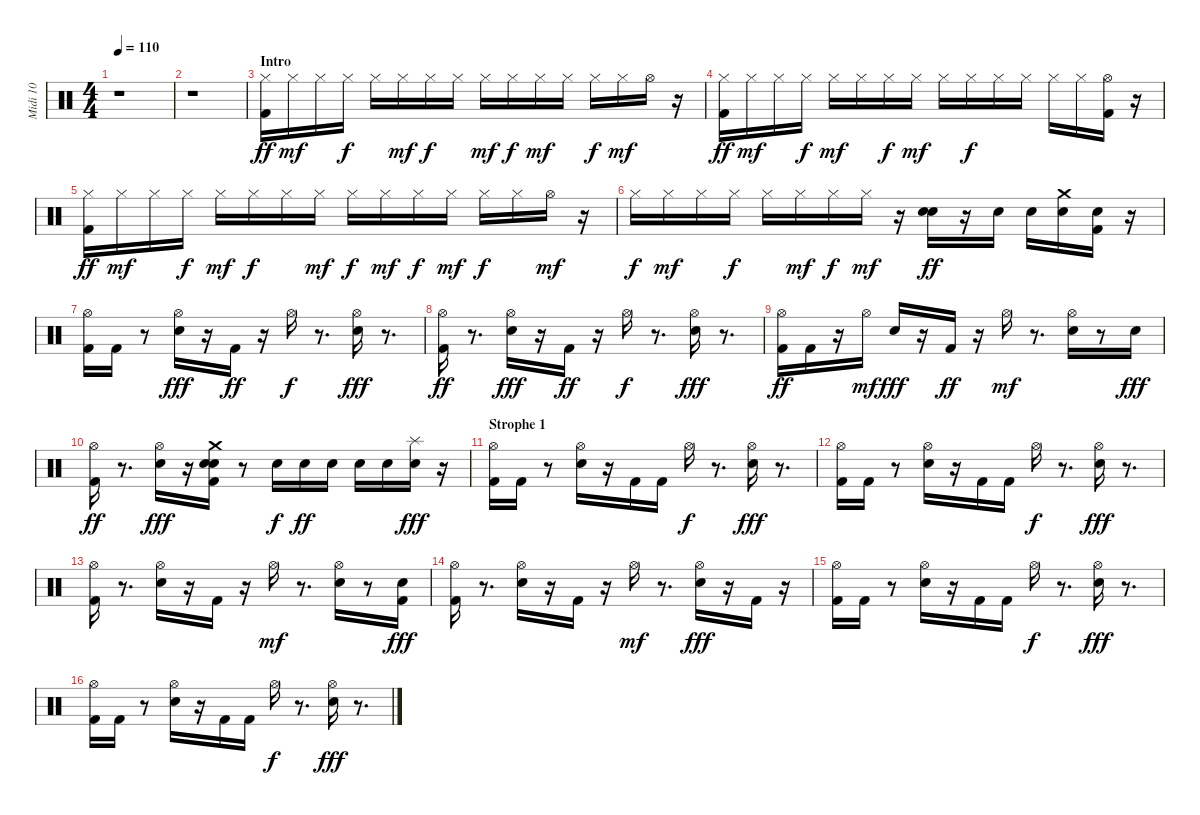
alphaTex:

\track ("Midi 10" "Midi 10") {instrument percussion}
\staff {score}
\articulation defaults
\ts (4 4)
\tempo 110
\clef neutral
\ks c
r.1{dy ff} |
r.1 |
\section ("" "Intro")
("Kick (hit) 2" "Hi-Hat (closed)").16 "Hi-Hat (closed)".16{dy mf} "Hi-Hat (closed)".16 "Hi-Hat (closed)".16{dy f} "Hi-Hat (closed)".16 "Hi-Hat (closed)".16{dy mf} "Hi-Hat (closed)".16{dy f} "Hi-Hat (closed)".16 "Hi-Hat (closed)".16{dy mf} "Hi-Hat (closed)".16{dy f} "Hi-Hat (closed)".16{dy mf} "Hi-Hat (closed)".16 "Hi-Hat (closed)".16{dy f} "Hi-Hat (closed)".16{dy mf} "Hi-Hat (open)".16 r.16 |
("Kick (hit) 2" "Hi-Hat (closed)").16{dy ff} "Hi-Hat (closed)".16{dy mf} "Hi-Hat (closed)".16 "Hi-Hat (closed)".16{dy f} "Hi-Hat (closed)".16{dy mf} "Hi-Hat (closed)".16 "Hi-Hat (closed)".16{dy f} "Hi-Hat (closed)".16{dy mf} "Hi-Hat (closed)".16 "Hi-Hat (closed)".16{dy f} "Hi-Hat (closed)".16 "Hi-Hat (closed)".16 "Hi-Hat (closed)".16 "Hi-Hat (closed)".16 ("Hi-Hat (open)" "Kick (hit) 2").16 r.16 |
("Kick (hit) 2" "Hi-Hat (closed)").16{dy ff} "Hi-Hat (closed)".16{dy mf} "Hi-Hat (closed)".16 "Hi-Hat (closed)".16{dy f} "Hi-Hat (closed)".16{dy mf} "Hi-Hat (closed)".16{dy f} "Hi-Hat (closed)".16 "Hi-Hat (closed)".16{dy mf} "Hi-Hat (closed)".16{dy f} "Hi-Hat (closed)".16{dy mf} "Hi-Hat (closed)".16{dy f} "Hi-Hat (closed)".16{dy mf} "Hi-Hat (closed)".16{dy f} "Hi-Hat (closed)".16 "Hi-Hat (open)".16{dy mf} r.16 |
"Hi-Hat (closed)".16{dy f} "Hi-Hat (closed)".16{dy mf} "Hi-Hat (closed)".16 "Hi-Hat (closed)".16{dy f} "Hi-Hat (closed)".16 "Hi-Hat (closed)".16{dy mf} "Hi-Hat (closed)".16{dy f} "Hi-Hat (closed)".16{dy mf} r.16 ("Snare (hit) 2" "Snare (hit) 2").16{dy ff} r.16 "Snare (hit) 2".16 "Snare (hit) 2".16 ("Snare (hit) 2" "Crash medium (hit)").16 ("Snare (hit) 2" "Kick (hit) 2").16 r.16 |
("Kick (hit) 2" "Hi-Hat (open)").16 "Kick (hit) 2".16 r.8 ("Snare (hit) 2" "Hi-Hat (open)").16{dy fff} r.16 "Kick (hit) 2".16{dy ff} r.16 "Hi-Hat (open)".16{dy f} r.8{d} ("Snare (hit) 2" "Hi-Hat (open)").16{dy fff} r.8{d} |
("Kick (hit) 2" "Hi-Hat (open)").16{dy ff} r.8{d} ("Snare (hit) 2" "Hi-Hat (open)").16{dy fff} r.16 "Kick (hit) 2".16{dy ff} r.16 "Hi-Hat (open)".16{dy f} r.8{d} ("Snare (hit) 2" "Hi-Hat (open)").16{dy fff} r.8{d} |
("Kick (hit) 2" "Hi-Hat (open)").16{dy ff} "Kick (hit) 2".16 r.16 "Hi-Hat (open)".16{dy mf} "Snare (hit) 2".16{dy fff} r.16 "Kick (hit) 2".16{dy ff} r.16 "Hi-Hat (open)".16{dy mf} r.8{d} ("Snare (hit) 2" "Hi-Hat (open)").16 r.8 "Snare (hit) 2".16{dy fff} |
("Kick (hit) 2" "Hi-Hat (open)").16{dy ff} r.8{d} ("Snare (hit) 2" "Hi-Hat (open)").16{dy fff} r.16 ("Snare (hit) 2" "Kick (hit) 2" "Snare (hit) 2" "Crash medium (hit)").16 r.8 "Snare (hit) 2".16{dy f} "Snare (hit) 2".16{dy ff} "Snare (hit) 2".16 "Snare (hit) 2".16 "Snare (hit) 2".16 ("Snare (hit) 2" "Splash (hit)").16{dy fff} r.16 |
\section ("" "Strophe 1")
("Kick (hit) 2" "Hi-Hat (open)").16 "Kick (hit) 2".16 r.8 ("Snare (hit) 2" "Hi-Hat (open)").16 r.16 "Kick (hit) 2".16 "Kick (hit) 2".16 "Hi-Hat (open)".16{dy f} r.8{d} ("Snare (hit) 2" "Hi-Hat (open)").16{dy fff} r.8{d} |
("Kick (hit) 2" "Hi-Hat (open)").16 "Kick (hit) 2".16 r.8 ("Snare (hit) 2" "Hi-Hat (open)").16 r.16 "Kick (hit) 2".16 "Kick (hit) 2".16 "Hi-Hat (open)".16{dy f} r.8{d} ("Snare (hit) 2" "Hi-Hat (open)").16{dy fff} r.8{d} |
("Kick (hit) 2" "Hi-Hat (open)").16 r.8{d} ("Hi-Hat (open)" "Snare (hit) 2").16 r.16 "Kick (hit) 2".16 r.16 "Hi-Hat (open)".16{dy mf} r.8{d} ("Snare (hit) 2" "Hi-Hat (open)").16 r.8 ("Kick (hit) 2" "Snare (hit) 2").16{dy fff} |
("Kick (hit) 2" "Hi-Hat (open)").16 r.8{d} ("Snare (hit) 2" "Hi-Hat (open)").16 r.16 "Kick (hit) 2".16 r.16 "Hi-Hat (open)".16{dy mf} r.8{d} ("Hi-Hat (open)" "Snare (hit) 2").16{dy fff} r.16 "Kick (hit) 2".16 r.16 |
("Kick (hit) 2" "Hi-Hat (open)").16 "Kick (hit) 2".16 r.8 ("Snare (hit) 2" "Hi-Hat (open)").16 r.16 "Kick (hit) 2".16 "Kick (hit) 2".16 "Hi-Hat (open)".16{dy f} r.8{d} ("Snare (hit) 2" "Hi-Hat (open)").16{dy fff} r.8{d} |
("Kick (hit) 2" "Hi-Hat (open)").16 "Kick (hit) 2".16 r.8 ("Snare (hit) 2" "Hi-Hat (open)").16 r.16 "Kick (hit) 2".16 "Kick (hit) 2".16 "Hi-Hat (open)".16{dy f} r.8{d} ("Snare (hit) 2" "Hi-Hat (open)").16{dy fff} r.8{d}
